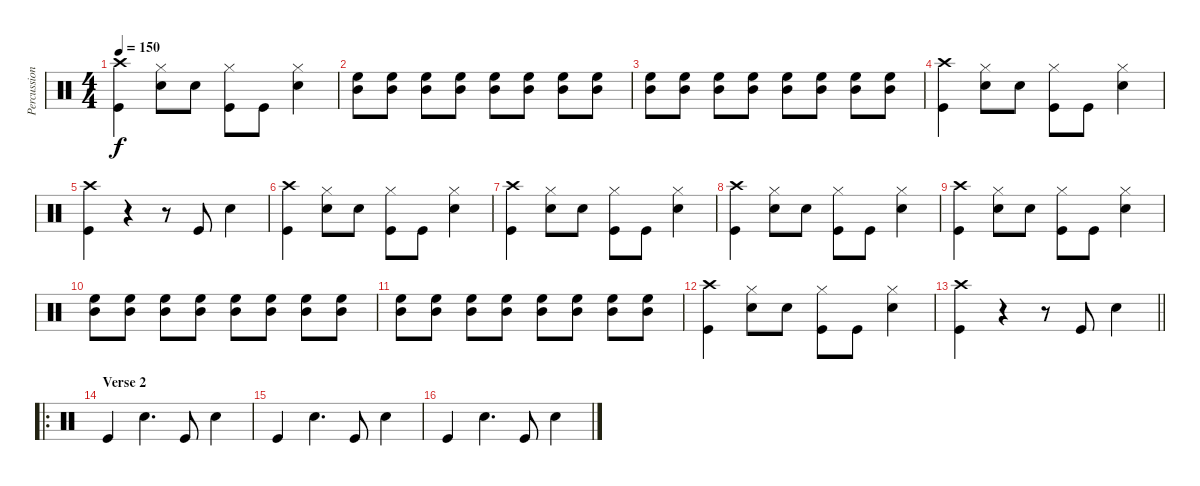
\track ("Percussion" "Percussion") {instrument percussion}
\staff {score}
\articulation defaults
\ts (4 4)
\tempo 150
\clef neutral
\ks c
("Kick (hit)" "Crash high (hit)").4{dy f} ("Snare (hit) 2" "Hi-Hat (closed)").8 "Snare (hit) 2".8 ("Kick (hit)" "Hi-Hat (closed)").8 "Kick (hit)".8 ("Snare (hit) 2" "Hi-Hat (closed)").4 |
("Mid Tom (hit)" "High Floor Tom (hit)").8 ("Mid Tom (hit)" "High Floor Tom (hit)").8 ("Mid Tom (hit)" "High Floor Tom (hit)").8 ("Mid Tom (hit)" "High Floor Tom (hit)").8 ("Mid Tom (hit)" "High Floor Tom (hit)").8 ("Mid Tom (hit)" "High Floor Tom (hit)").8 ("Mid Tom (hit)" "High Floor Tom (hit)").8 ("Mid Tom (hit)" "High Floor Tom (hit)").8 |
("Mid Tom (hit)" "High Floor Tom (hit)").8 ("Mid Tom (hit)" "High Floor Tom (hit)").8 ("Mid Tom (hit)" "High Floor Tom (hit)").8 ("Mid Tom (hit)" "High Floor Tom (hit)").8 ("Mid Tom (hit)" "High Floor Tom (hit)").8 ("Mid Tom (hit)" "High Floor Tom (hit)").8 ("Mid Tom (hit)" "High Floor Tom (hit)").8 ("Mid Tom (hit)" "High Floor Tom (hit)").8 |
("Kick (hit)" "Crash high (hit)").4 ("Snare (hit) 2" "Hi-Hat (closed)").8 "Snare (hit) 2".8 ("Kick (hit)" "Hi-Hat (closed)").8 "Kick (hit)".8 ("Snare (hit) 2" "Hi-Hat (closed)").4 |
("Kick (hit)" "Crash high (hit)").4 r.4 r.8 "Kick (hit)".8 "Snare (hit) 2".4 |
("Kick (hit)" "Crash high (hit)").4 ("Snare (hit) 2" "Hi-Hat (closed)").8 "Snare (hit) 2".8 ("Kick (hit)" "Hi-Hat (closed)").8 "Kick (hit)".8 ("Snare (hit) 2" "Hi-Hat (closed)").4 |
("Kick (hit)" "Crash high (hit)").4 ("Snare (hit) 2" "Hi-Hat (closed)").8 "Snare (hit) 2".8 ("Kick (hit)" "Hi-Hat (closed)").8 "Kick (hit)".8 ("Snare (hit) 2" "Hi-Hat (closed)").4 |
("Kick (hit)" "Crash high (hit)").4 ("Snare (hit) 2" "Hi-Hat (closed)").8 "Snare (hit) 2".8 ("Kick (hit)" "Hi-Hat (closed)").8 "Kick (hit)".8 ("Snare (hit) 2" "Hi-Hat (closed)").4 |
("Kick (hit)" "Crash high (hit)").4 ("Snare (hit) 2" "Hi-Hat (closed)").8 "Snare (hit) 2".8 ("Kick (hit)" "Hi-Hat (closed)").8 "Kick (hit)".8 ("Snare (hit) 2" "Hi-Hat (closed)").4 |
("Mid Tom (hit)" "High Floor Tom (hit)").8 ("Mid Tom (hit)" "High Floor Tom (hit)").8 ("Mid Tom (hit)" "High Floor Tom (hit)").8 ("Mid Tom (hit)" "High Floor Tom (hit)").8 ("Mid Tom (hit)" "High Floor Tom (hit)").8 ("Mid Tom (hit)" "High Floor Tom (hit)").8 ("Mid Tom (hit)" "High Floor Tom (hit)").8 ("Mid Tom (hit)" "High Floor Tom (hit)").8 |
("Mid Tom (hit)" "High Floor Tom (hit)").8 ("Mid Tom (hit)" "High Floor Tom (hit)").8 ("Mid Tom (hit)" "High Floor Tom (hit)").8 ("Mid Tom (hit)" "High Floor Tom (hit)").8 ("Mid Tom (hit)" "High Floor Tom (hit)").8 ("Mid Tom (hit)" "High Floor Tom (hit)").8 ("Mid Tom (hit)" "High Floor Tom (hit)").8 ("Mid Tom (hit)" "High Floor Tom (hit)").8 |
("Kick (hit)" "Crash high (hit)").4 ("Snare (hit) 2" "Hi-Hat (closed)").8 "Snare (hit) 2".8 ("Kick (hit)" "Hi-Hat (closed)").8 "Kick (hit)".8 ("Snare (hit) 2" "Hi-Hat (closed)").4 |
\barLineRight lightlight
("Kick (hit)" "Crash high (hit)").4 r.4 r.8 "Kick (hit)".8 "Snare (hit) 2".4 |
\ro
\section ("" "Verse 2")
"Kick (hit)".4 "Snare (hit) 2".4{d} "Kick (hit)".8 "Snare (hit) 2".4 |
"Kick (hit)".4 "Snare (hit) 2".4{d} "Kick (hit)".8 "Snare (hit) 2".4 |
"Kick (hit)".4 "Snare (hit) 2".4{d} "Kick (hit)".8 "Snare (hit) 2".4
